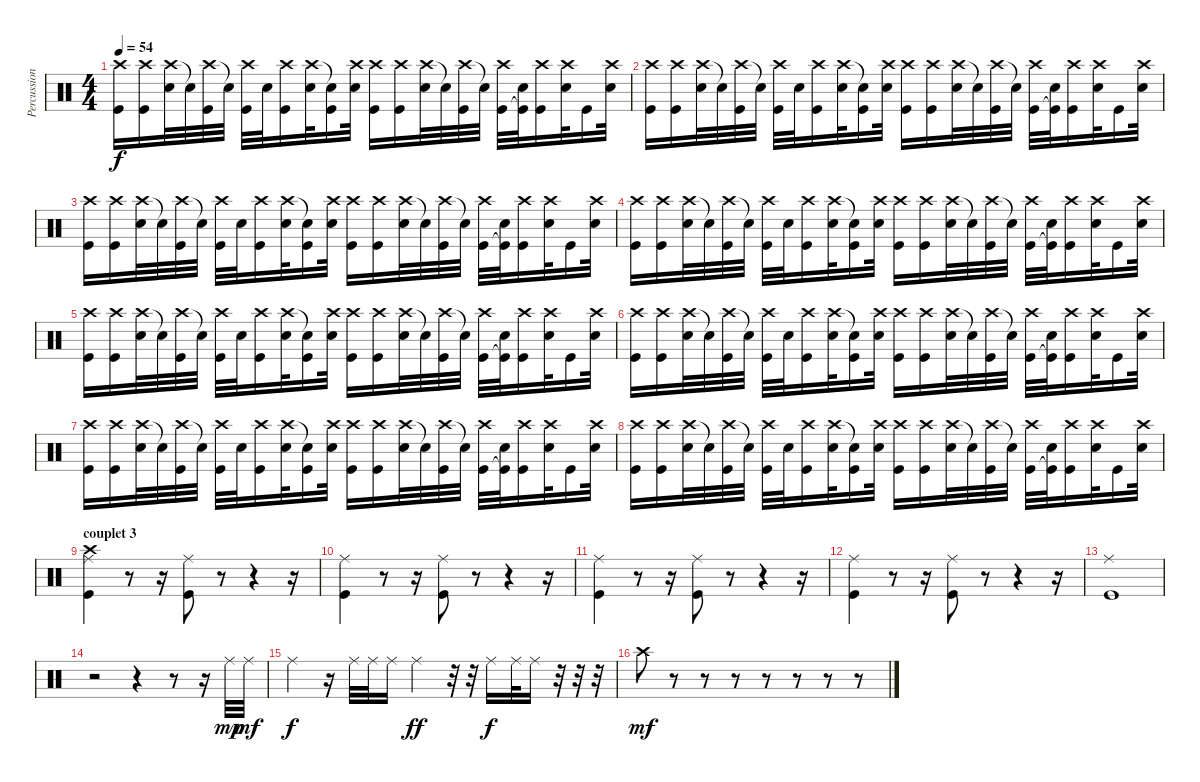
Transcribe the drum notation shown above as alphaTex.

\track ("Percussions" "Percussion") {instrument percussion}
\staff {score}
\articulation defaults
\ts (4 4)
\tempo 54
\clef neutral
\ks c
("Crash high (hit)" "Kick (hit)").16{dy f} ("Crash high (hit)" "Kick (hit)").16 ("Crash high (hit)" "Electric Snare (hit)").32 "Snare (hit)"{t}.32 ("Crash high (hit)" "Kick (hit)").32 "Snare (hit)"{t}.32 ("Crash high (hit)" "Kick (hit)").32 "Electric Snare (hit)".32 ("Crash high (hit)" "Kick (hit)").16 ("Crash high (hit)" "Electric Snare (hit)").32 ("Snare (hit)"{t} "Kick (hit)").16 ("Crash high (hit)" "Electric Snare (hit)").32 ("Crash high (hit)" "Kick (hit)").16 ("Crash high (hit)" "Kick (hit)").16 ("Crash high (hit)" "Electric Snare (hit)").32 "Snare (hit)"{t}.32 ("Crash high (hit)" "Kick (hit)").32 "Snare (hit)"{t}.32 ("Crash high (hit)" "Kick (hit)").32 ("Electric Snare (hit)" "Kick (hit)"{t}).32 ("Crash high (hit)" "Kick (hit)").16 ("Crash high (hit)" "Electric Snare (hit)").32 "Kick (hit)".16 ("Crash high (hit)" "Electric Snare (hit)").32 |
("Crash high (hit)" "Kick (hit)").16 ("Crash high (hit)" "Kick (hit)").16 ("Crash high (hit)" "Electric Snare (hit)").32 "Snare (hit)"{t}.32 ("Crash high (hit)" "Kick (hit)").32 "Snare (hit)"{t}.32 ("Crash high (hit)" "Kick (hit)").32 "Electric Snare (hit)".32 ("Crash high (hit)" "Kick (hit)").16 ("Crash high (hit)" "Electric Snare (hit)").32 ("Snare (hit)"{t} "Kick (hit)").16 ("Crash high (hit)" "Electric Snare (hit)").32 ("Crash high (hit)" "Kick (hit)").16 ("Crash high (hit)" "Kick (hit)").16 ("Crash high (hit)" "Electric Snare (hit)").32 "Snare (hit)"{t}.32 ("Crash high (hit)" "Kick (hit)").32 "Snare (hit)"{t}.32 ("Crash high (hit)" "Kick (hit)").32 ("Electric Snare (hit)" "Kick (hit)"{t}).32 ("Crash high (hit)" "Kick (hit)").16 ("Crash high (hit)" "Electric Snare (hit)").32 "Kick (hit)".16 ("Crash high (hit)" "Electric Snare (hit)").32 |
("Crash high (hit)" "Kick (hit)").16 ("Crash high (hit)" "Kick (hit)").16 ("Crash high (hit)" "Electric Snare (hit)").32 "Snare (hit)"{t}.32 ("Crash high (hit)" "Kick (hit)").32 "Snare (hit)"{t}.32 ("Crash high (hit)" "Kick (hit)").32 "Electric Snare (hit)".32 ("Crash high (hit)" "Kick (hit)").16 ("Crash high (hit)" "Electric Snare (hit)").32 ("Snare (hit)"{t} "Kick (hit)").16 ("Crash high (hit)" "Electric Snare (hit)").32 ("Crash high (hit)" "Kick (hit)").16 ("Crash high (hit)" "Kick (hit)").16 ("Crash high (hit)" "Electric Snare (hit)").32 "Snare (hit)"{t}.32 ("Crash high (hit)" "Kick (hit)").32 "Snare (hit)"{t}.32 ("Crash high (hit)" "Kick (hit)").32 ("Electric Snare (hit)" "Kick (hit)"{t}).32 ("Crash high (hit)" "Kick (hit)").16 ("Crash high (hit)" "Electric Snare (hit)").32 "Kick (hit)".16 ("Crash high (hit)" "Electric Snare (hit)").32 |
("Crash high (hit)" "Kick (hit)").16 ("Crash high (hit)" "Kick (hit)").16 ("Crash high (hit)" "Electric Snare (hit)").32 "Snare (hit)"{t}.32 ("Crash high (hit)" "Kick (hit)").32 "Snare (hit)"{t}.32 ("Crash high (hit)" "Kick (hit)").32 "Electric Snare (hit)".32 ("Crash high (hit)" "Kick (hit)").16 ("Crash high (hit)" "Electric Snare (hit)").32 ("Snare (hit)"{t} "Kick (hit)").16 ("Crash high (hit)" "Electric Snare (hit)").32 ("Crash high (hit)" "Kick (hit)").16 ("Crash high (hit)" "Kick (hit)").16 ("Crash high (hit)" "Electric Snare (hit)").32 "Snare (hit)"{t}.32 ("Crash high (hit)" "Kick (hit)").32 "Snare (hit)"{t}.32 ("Crash high (hit)" "Kick (hit)").32 ("Electric Snare (hit)" "Kick (hit)"{t}).32 ("Crash high (hit)" "Kick (hit)").16 ("Crash high (hit)" "Electric Snare (hit)").32 "Kick (hit)".16 ("Crash high (hit)" "Electric Snare (hit)").32 |
("Crash high (hit)" "Kick (hit)").16 ("Crash high (hit)" "Kick (hit)").16 ("Crash high (hit)" "Electric Snare (hit)").32 "Snare (hit)"{t}.32 ("Crash high (hit)" "Kick (hit)").32 "Snare (hit)"{t}.32 ("Crash high (hit)" "Kick (hit)").32 "Electric Snare (hit)".32 ("Crash high (hit)" "Kick (hit)").16 ("Crash high (hit)" "Electric Snare (hit)").32 ("Snare (hit)"{t} "Kick (hit)").16 ("Crash high (hit)" "Electric Snare (hit)").32 ("Crash high (hit)" "Kick (hit)").16 ("Crash high (hit)" "Kick (hit)").16 ("Crash high (hit)" "Electric Snare (hit)").32 "Snare (hit)"{t}.32 ("Crash high (hit)" "Kick (hit)").32 "Snare (hit)"{t}.32 ("Crash high (hit)" "Kick (hit)").32 ("Electric Snare (hit)" "Kick (hit)"{t}).32 ("Crash high (hit)" "Kick (hit)").16 ("Crash high (hit)" "Electric Snare (hit)").32 "Kick (hit)".16 ("Crash high (hit)" "Electric Snare (hit)").32 |
("Crash high (hit)" "Kick (hit)").16 ("Crash high (hit)" "Kick (hit)").16 ("Crash high (hit)" "Electric Snare (hit)").32 "Snare (hit)"{t}.32 ("Crash high (hit)" "Kick (hit)").32 "Snare (hit)"{t}.32 ("Crash high (hit)" "Kick (hit)").32 "Electric Snare (hit)".32 ("Crash high (hit)" "Kick (hit)").16 ("Crash high (hit)" "Electric Snare (hit)").32 ("Snare (hit)"{t} "Kick (hit)").16 ("Crash high (hit)" "Electric Snare (hit)").32 ("Crash high (hit)" "Kick (hit)").16 ("Crash high (hit)" "Kick (hit)").16 ("Crash high (hit)" "Electric Snare (hit)").32 "Snare (hit)"{t}.32 ("Crash high (hit)" "Kick (hit)").32 "Snare (hit)"{t}.32 ("Crash high (hit)" "Kick (hit)").32 ("Electric Snare (hit)" "Kick (hit)"{t}).32 ("Crash high (hit)" "Kick (hit)").16 ("Crash high (hit)" "Electric Snare (hit)").32 "Kick (hit)".16 ("Crash high (hit)" "Electric Snare (hit)").32 |
("Crash high (hit)" "Kick (hit)").16 ("Crash high (hit)" "Kick (hit)").16 ("Crash high (hit)" "Electric Snare (hit)").32 "Snare (hit)"{t}.32 ("Crash high (hit)" "Kick (hit)").32 "Snare (hit)"{t}.32 ("Crash high (hit)" "Kick (hit)").32 "Electric Snare (hit)".32 ("Crash high (hit)" "Kick (hit)").16 ("Crash high (hit)" "Electric Snare (hit)").32 ("Snare (hit)"{t} "Kick (hit)").16 ("Crash high (hit)" "Electric Snare (hit)").32 ("Crash high (hit)" "Kick (hit)").16 ("Crash high (hit)" "Kick (hit)").16 ("Crash high (hit)" "Electric Snare (hit)").32 "Snare (hit)"{t}.32 ("Crash high (hit)" "Kick (hit)").32 "Snare (hit)"{t}.32 ("Crash high (hit)" "Kick (hit)").32 ("Electric Snare (hit)" "Kick (hit)"{t}).32 ("Crash high (hit)" "Kick (hit)").16 ("Crash high (hit)" "Electric Snare (hit)").32 "Kick (hit)".16 ("Crash high (hit)" "Electric Snare (hit)").32 |
("Crash high (hit)" "Kick (hit)").16 ("Crash high (hit)" "Kick (hit)").16 ("Crash high (hit)" "Electric Snare (hit)").32 "Snare (hit)"{t}.32 ("Crash high (hit)" "Kick (hit)").32 "Snare (hit)"{t}.32 ("Crash high (hit)" "Kick (hit)").32 "Electric Snare (hit)".32 ("Crash high (hit)" "Kick (hit)").16 ("Crash high (hit)" "Electric Snare (hit)").32 ("Snare (hit)"{t} "Kick (hit)").16 ("Crash high (hit)" "Electric Snare (hit)").32 ("Crash high (hit)" "Kick (hit)").16 ("Crash high (hit)" "Kick (hit)").16 ("Crash high (hit)" "Electric Snare (hit)").32 "Snare (hit)"{t}.32 ("Crash high (hit)" "Kick (hit)").32 "Snare (hit)"{t}.32 ("Crash high (hit)" "Kick (hit)").32 ("Electric Snare (hit)" "Kick (hit)"{t}).32 ("Crash high (hit)" "Kick (hit)").16 ("Crash high (hit)" "Electric Snare (hit)").32 "Kick (hit)".16 ("Crash high (hit)" "Electric Snare (hit)").32 |
\section ("" "couplet 3")
("Ride (middle)" "Crash high (hit)" "Kick (hit)").4 r.8 r.16 ("Ride (middle)" "Kick (hit)").8 r.8 r.4 r.16 |
("Ride (middle)" "Kick (hit)").4 r.8 r.16 ("Ride (middle)" "Kick (hit)").8 r.8 r.4 r.16 |
("Ride (middle)" "Kick (hit)").4 r.8 r.16 ("Ride (middle)" "Kick (hit)").8 r.8 r.4 r.16 |
("Ride (middle)" "Kick (hit)").4 r.8 r.16 ("Ride (middle)" "Kick (hit)").8 r.8 r.4 r.16 |
("Ride (middle)" "Kick (hit)").1 |
r.2 r.4 r.8 r.16 "Ride (middle)".32{dy mp} "Ride (middle)".32{dy mf} |
"Ride (middle)".4{dy f} r.16 "Ride (middle)".32 "Ride (middle)".32 "Ride (middle)".16 "Ride (middle)".4{dy ff} r.32 r.32 "Ride (middle)".16{dy f} "Ride (middle)".32 "Ride (middle)".16 r.32 r.32 r.32 |
"Crash high (hit)".8{dy mf} r.8 r.8 r.8 r.8 r.8 r.8 r.8
